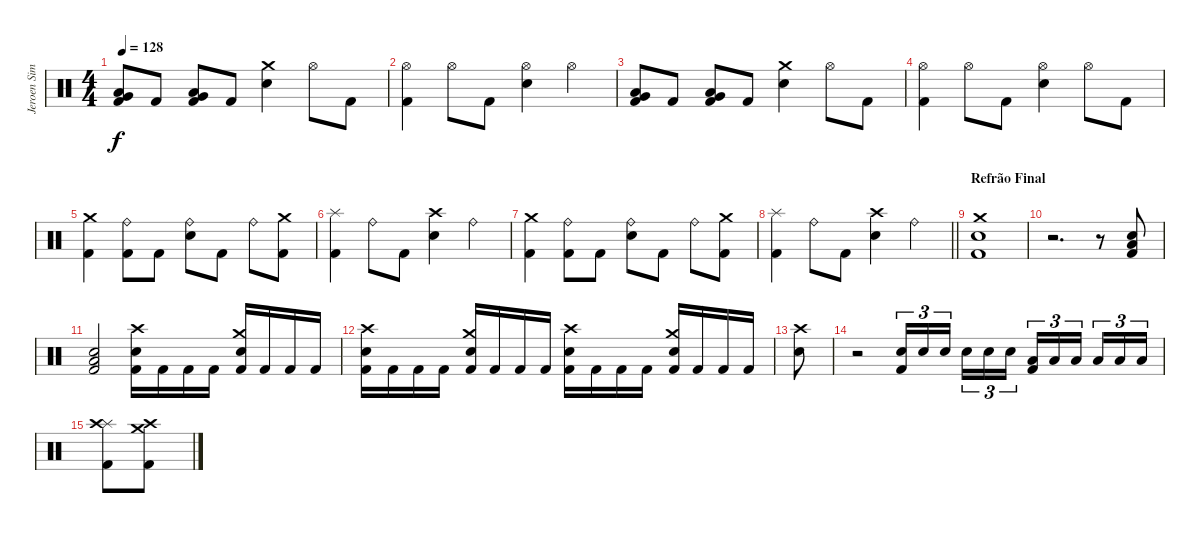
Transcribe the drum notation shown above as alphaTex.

\track ("Jeroen Simons" "Jeroen Sim") {instrument percussion}
\staff {score}
\articulation defaults
\ts (4 4)
\tempo 128
\clef neutral
\ks c
("Very Low Tom (hit)" "Low Tom (hit)" "Kick (hit) 2").8{dy f} "Kick (hit) 2".8 ("Very Low Tom (hit)" "Low Tom (hit)" "Kick (hit) 2").8 "Kick (hit) 2".8 ("Crash medium (hit)" "Electric Snare (hit)").4 "Hi-Hat (open)".8 "Kick (hit) 2".8 |
("Hi-Hat (open)" "Kick (hit) 2").4 "Hi-Hat (open)".8 "Kick (hit) 2".8 ("Hi-Hat (open)" "Electric Snare (hit)").4 "Hi-Hat (open)".4 |
("Very Low Tom (hit)" "Low Tom (hit)" "Kick (hit) 2").8 "Kick (hit) 2".8 ("Very Low Tom (hit)" "Low Tom (hit)" "Kick (hit) 2").8 "Kick (hit) 2".8 ("Crash medium (hit)" "Electric Snare (hit)").4 "Hi-Hat (open)".8 "Kick (hit) 2".8 |
("Hi-Hat (open)" "Kick (hit) 2").4 "Hi-Hat (open)".8 "Kick (hit) 2".8 ("Hi-Hat (open)" "Electric Snare (hit)").4 "Hi-Hat (open)".8 "Kick (hit) 2".8 |
("Crash medium (hit)" "Kick (hit) 2").4 ("Ride (bell)" "Kick (hit) 2").8 "Kick (hit) 2".8 ("Ride (bell)" "Electric Snare (hit)").8 "Kick (hit) 2".8 "Ride (bell)".8 ("Crash medium (hit)" "Kick (hit) 2").8 |
("Splash (hit)" "Kick (hit) 2").4 "Ride (bell)".8 "Kick (hit) 2".8 ("Crash high (hit)" "Electric Snare (hit)").4 "Ride (bell)".4 |
("Crash medium (hit)" "Kick (hit) 2").4 ("Ride (bell)" "Kick (hit) 2").8 "Kick (hit) 2".8 ("Ride (bell)" "Electric Snare (hit)").8 "Kick (hit) 2".8 "Ride (bell)".8 ("Crash medium (hit)" "Kick (hit) 2").8 |
\barLineRight lightlight
("Splash (hit)" "Kick (hit) 2").4 "Ride (bell)".8 "Kick (hit) 2".8 ("Crash high (hit)" "Electric Snare (hit)").4 "Ride (bell)".4 |
\section ("" "Refrão Final")
("Crash medium (hit)" "Electric Snare (hit)" "Kick (hit) 2").1 |
r.2{d} r.8 ("Low Floor Tom (hit)" "Electric Snare (hit)" "Kick (hit) 2").8 |
("Low Floor Tom (hit)" "Electric Snare (hit)" "Kick (hit) 2").2 ("Crash high (hit)" "Electric Snare (hit)" "Kick (hit) 2").16 "Kick (hit) 2".16 "Kick (hit) 2".16 "Kick (hit) 2".16 ("Crash medium (hit)" "Electric Snare (hit)" "Kick (hit) 2").16 "Kick (hit) 2".16 "Kick (hit) 2".16 "Kick (hit) 2".16 |
("Crash high (hit)" "Electric Snare (hit)" "Kick (hit) 2").16 "Kick (hit) 2".16 "Kick (hit) 2".16 "Kick (hit) 2".16 ("Crash medium (hit)" "Electric Snare (hit)" "Kick (hit) 2").16 "Kick (hit) 2".16 "Kick (hit) 2".16 "Kick (hit) 2".16 ("Crash high (hit)" "Electric Snare (hit)" "Kick (hit) 2").16 "Kick (hit) 2".16 "Kick (hit) 2".16 "Kick (hit) 2".16 ("Crash medium (hit)" "Electric Snare (hit)" "Kick (hit) 2").16 "Kick (hit) 2".16 "Kick (hit) 2".16 "Kick (hit) 2".16 |
("Crash high (hit)" "Electric Snare (hit)").8 |
r.2 ("Electric Snare (hit)" "Kick (hit) 2").16{tu (3 2)} "Electric Snare (hit)".16{tu (3 2)} "Electric Snare (hit)".16{tu (3 2) beam splitsecondary} "Electric Snare (hit)".16{tu (3 2)} "Electric Snare (hit)".16{tu (3 2)} "Electric Snare (hit)".16{tu (3 2)} ("Low Tom (hit)" "Kick (hit) 2").16{tu (3 2)} "Low Tom (hit)".16{tu (3 2)} "Low Tom (hit)".16{tu (3 2) beam splitsecondary} "Low Tom (hit)".16{tu (3 2)} "Low Tom (hit)".16{tu (3 2)} "Low Tom (hit)".16{tu (3 2)} |
("Splash (hit)" "Crash high (hit)" "Kick (hit) 2").8 ("Crash medium (hit)" "Crash high (hit)" "Kick (hit) 2").8
